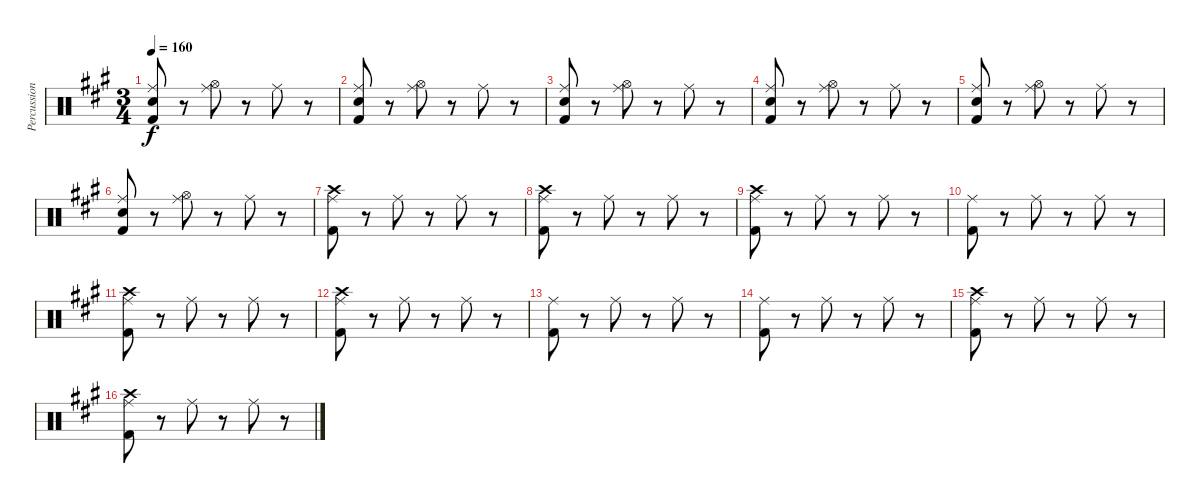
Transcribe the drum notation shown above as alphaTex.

\track ("Percussioni" "Percussion") {instrument percussion}
\staff {score}
\articulation defaults
\ts (3 4)
\tempo 160
\clef neutral
\ks a
("Electric Snare (hit)" "Ride (middle)" "Kick (hit) 2").8{dy f} r.8 ("Hi-Hat (open)" "Ride (middle)").8 r.8 "Ride (middle)".8 r.8 |
("Electric Snare (hit)" "Ride (middle)" "Kick (hit) 2").8 r.8 ("Hi-Hat (open)" "Ride (middle)").8 r.8 "Ride (middle)".8 r.8 |
("Electric Snare (hit)" "Ride (middle)" "Kick (hit) 2").8 r.8 ("Hi-Hat (open)" "Ride (middle)").8 r.8 "Ride (middle)".8 r.8 |
("Electric Snare (hit)" "Ride (middle)" "Kick (hit) 2").8 r.8 ("Hi-Hat (open)" "Ride (middle)").8 r.8 "Ride (middle)".8 r.8 |
("Electric Snare (hit)" "Ride (middle)" "Kick (hit) 2").8 r.8 ("Hi-Hat (open)" "Ride (middle)").8 r.8 "Ride (middle)".8 r.8 |
("Electric Snare (hit)" "Ride (middle)" "Kick (hit) 2").8 r.8 ("Hi-Hat (open)" "Ride (middle)").8 r.8 "Ride (middle)".8 r.8 |
("Crash high (hit)" "Ride (middle)" "Kick (hit) 2").8 r.8 "Ride (middle)".8 r.8 "Ride (middle)".8 r.8 |
("Crash high (hit)" "Ride (middle)" "Kick (hit) 2").8 r.8 "Ride (middle)".8 r.8 "Ride (middle)".8 r.8 |
("Crash high (hit)" "Ride (middle)" "Kick (hit) 2").8 r.8 "Ride (middle)".8 r.8 "Ride (middle)".8 r.8 |
("Ride (middle)" "Kick (hit) 2").8 r.8 "Ride (middle)".8 r.8 "Ride (middle)".8 r.8 |
("Crash high (hit)" "Ride (middle)" "Kick (hit) 2").8 r.8 "Ride (middle)".8 r.8 "Ride (middle)".8 r.8 |
("Crash high (hit)" "Ride (middle)" "Kick (hit) 2").8 r.8 "Ride (middle)".8 r.8 "Ride (middle)".8 r.8 |
("Ride (middle)" "Kick (hit) 2").8 r.8 "Ride (middle)".8 r.8 "Ride (middle)".8 r.8 |
("Ride (middle)" "Kick (hit) 2").8 r.8 "Ride (middle)".8 r.8 "Ride (middle)".8 r.8 |
("Crash high (hit)" "Ride (middle)" "Kick (hit) 2").8 r.8 "Ride (middle)".8 r.8 "Ride (middle)".8 r.8 |
("Crash high (hit)" "Ride (middle)" "Kick (hit) 2").8 r.8 "Ride (middle)".8 r.8 "Ride (middle)".8 r.8
